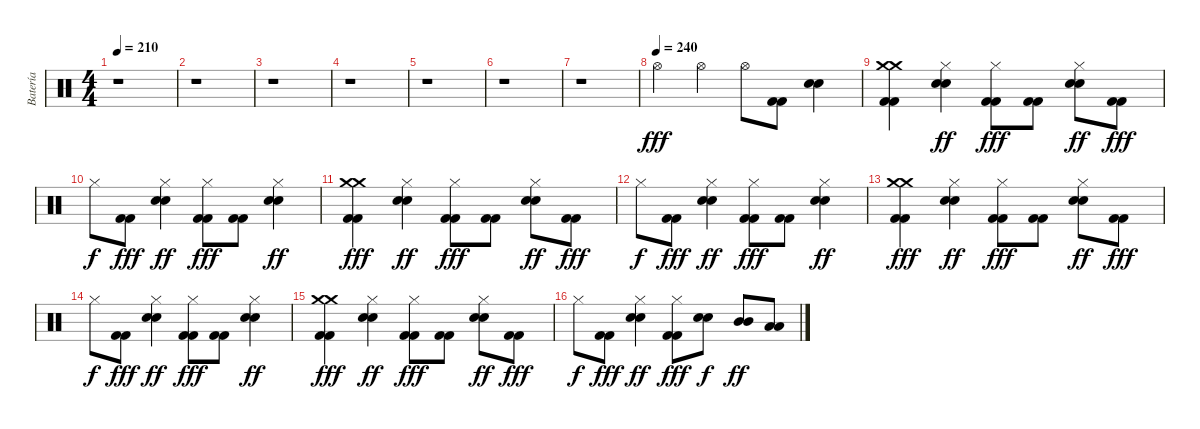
\track ("Batería" "Batería") {instrument percussion}
\staff {score}
\articulation defaults
\ts (4 4)
\tempo 210
\clef neutral
\ks c
r.1{dy fff} |
r.1 |
r.1 |
r.1 |
r.1 |
r.1 |
r.1 |
\tempo (240)
"Hi-Hat (open)".4 "Hi-Hat (open)".4 "Hi-Hat (open)".8 ("Kick (hit) 2" "Kick (hit) 2").8 ("Electric Snare (hit)" "Electric Snare (hit)").4 |
("Crash medium (hit)" "Crash medium (hit)" "Kick (hit) 2" "Kick (hit) 2").4 ("Hi-Hat (closed)" "Electric Snare (hit)" "Electric Snare (hit)").4{dy ff} ("Hi-Hat (closed)" "Kick (hit) 2" "Kick (hit) 2").8{dy fff} ("Kick (hit) 2" "Kick (hit) 2").8 ("Hi-Hat (closed)" "Electric Snare (hit)" "Electric Snare (hit)").8{dy ff} ("Kick (hit) 2" "Kick (hit) 2").8{dy fff} |
"Hi-Hat (closed)".8{dy f} ("Kick (hit) 2" "Kick (hit) 2").8{dy fff} ("Hi-Hat (closed)" "Electric Snare (hit)" "Electric Snare (hit)").4{dy ff} ("Hi-Hat (closed)" "Kick (hit) 2" "Kick (hit) 2").8{dy fff} ("Kick (hit) 2" "Kick (hit) 2").8 ("Hi-Hat (closed)" "Electric Snare (hit)" "Electric Snare (hit)").4{dy ff} |
("Crash medium (hit)" "Crash medium (hit)" "Kick (hit) 2" "Kick (hit) 2").4{dy fff} ("Hi-Hat (closed)" "Electric Snare (hit)" "Electric Snare (hit)").4{dy ff} ("Hi-Hat (closed)" "Kick (hit) 2" "Kick (hit) 2").8{dy fff} ("Kick (hit) 2" "Kick (hit) 2").8 ("Hi-Hat (closed)" "Electric Snare (hit)" "Electric Snare (hit)").8{dy ff} ("Kick (hit) 2" "Kick (hit) 2").8{dy fff} |
"Hi-Hat (closed)".8{dy f} ("Kick (hit) 2" "Kick (hit) 2").8{dy fff} ("Hi-Hat (closed)" "Electric Snare (hit)" "Electric Snare (hit)").4{dy ff} ("Hi-Hat (closed)" "Kick (hit) 2" "Kick (hit) 2").8{dy fff} ("Kick (hit) 2" "Kick (hit) 2").8 ("Hi-Hat (closed)" "Electric Snare (hit)" "Electric Snare (hit)").4{dy ff} |
("Crash medium (hit)" "Crash medium (hit)" "Kick (hit) 2" "Kick (hit) 2").4{dy fff} ("Hi-Hat (closed)" "Electric Snare (hit)" "Electric Snare (hit)").4{dy ff} ("Hi-Hat (closed)" "Kick (hit) 2" "Kick (hit) 2").8{dy fff} ("Kick (hit) 2" "Kick (hit) 2").8 ("Hi-Hat (closed)" "Electric Snare (hit)" "Electric Snare (hit)").8{dy ff} ("Kick (hit) 2" "Kick (hit) 2").8{dy fff} |
"Hi-Hat (closed)".8{dy f} ("Kick (hit) 2" "Kick (hit) 2").8{dy fff} ("Hi-Hat (closed)" "Electric Snare (hit)" "Electric Snare (hit)").4{dy ff} ("Hi-Hat (closed)" "Kick (hit) 2" "Kick (hit) 2").8{dy fff} ("Kick (hit) 2" "Kick (hit) 2").8 ("Hi-Hat (closed)" "Electric Snare (hit)" "Electric Snare (hit)").4{dy ff} |
("Crash medium (hit)" "Crash medium (hit)" "Kick (hit) 2" "Kick (hit) 2").4{dy fff} ("Hi-Hat (closed)" "Electric Snare (hit)" "Electric Snare (hit)").4{dy ff} ("Hi-Hat (closed)" "Kick (hit) 2" "Kick (hit) 2").8{dy fff} ("Kick (hit) 2" "Kick (hit) 2").8 ("Hi-Hat (closed)" "Electric Snare (hit)" "Electric Snare (hit)").8{dy ff} ("Kick (hit) 2" "Kick (hit) 2").8{dy fff} |
"Hi-Hat (closed)".8{dy f} ("Kick (hit) 2" "Kick (hit) 2").8{dy fff} ("Hi-Hat (closed)" "Electric Snare (hit)" "Electric Snare (hit)").4{dy ff} ("Hi-Hat (closed)" "Kick (hit) 2" "Kick (hit) 2").8{dy fff} ("Electric Snare (hit)" "Electric Snare (hit)").8{dy f} ("Mid Tom (hit)" "Mid Tom (hit)").8{dy ff} ("Low Tom (hit)" "Low Tom (hit)").8
